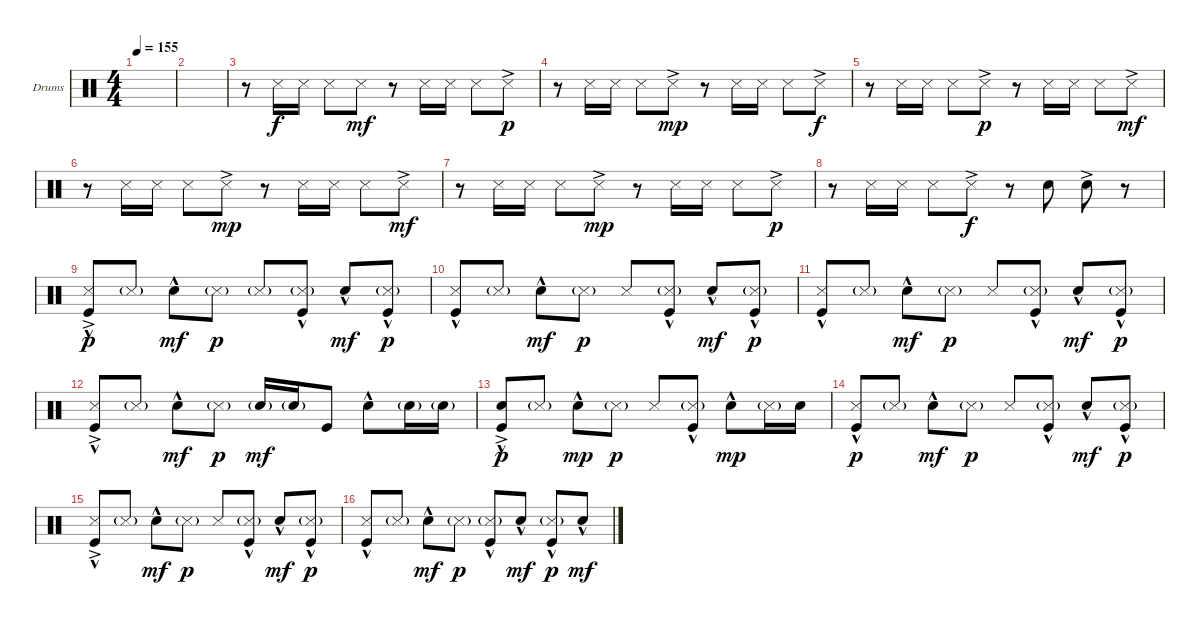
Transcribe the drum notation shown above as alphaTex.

\defaultSystemsLayout 4
\bracketExtendMode groupsimilarinstruments
\firstSystemTrackNameOrientation horizontal
\otherSystemsTrackNameOrientation horizontal
\track ("Drumkit" "Drums") {instrument percussion}
\staff {score}
\articulation defaults
\ts (4 4)
\tempo 155
\clef neutral
\ks c
|
|
r.8 "Snare (side stick) 3".16 "Snare (side stick) 3".16 "Snare (side stick) 3".8 "Snare (side stick) 3".8{dy mf} r.8 "Snare (side stick) 3".16 "Snare (side stick) 3".16 "Snare (side stick) 3".8 "Snare (side stick) 3"{ac}.8{dy p} |
r.8 "Snare (side stick) 3".16 "Snare (side stick) 3".16 "Snare (side stick) 3".8 "Snare (side stick) 3"{ac}.8{dy mp} r.8 "Snare (side stick) 3".16 "Snare (side stick) 3".16 "Snare (side stick) 3".8 "Snare (side stick) 3"{ac}.8{dy f} |
r.8 "Snare (side stick) 3".16 "Snare (side stick) 3".16 "Snare (side stick) 3".8 "Snare (side stick) 3"{ac}.8{dy p} r.8 "Snare (side stick) 3".16 "Snare (side stick) 3".16 "Snare (side stick) 3".8 "Snare (side stick) 3"{ac}.8{dy mf} |
r.8 "Snare (side stick) 3".16 "Snare (side stick) 3".16 "Snare (side stick) 3".8 "Snare (side stick) 3"{ac}.8{dy mp} r.8 "Snare (side stick) 3".16 "Snare (side stick) 3".16 "Snare (side stick) 3".8 "Snare (side stick) 3"{ac}.8{dy mf} |
r.8 "Snare (side stick) 3".16 "Snare (side stick) 3".16 "Snare (side stick) 3".8 "Snare (side stick) 3"{ac}.8{dy mp} r.8 "Snare (side stick) 3".16 "Snare (side stick) 3".16 "Snare (side stick) 3".8 "Snare (side stick) 3"{ac}.8{dy p} |
r.8 "Snare (side stick) 3".16 "Snare (side stick) 3".16 "Snare (side stick) 3".8 "Snare (side stick) 3"{ac}.8{dy f} r.8 "Snare (hit) 2".8 "Snare (hit) 2"{ac}.8 r.8 |
("Snare (side stick) 3"{ac} "Kick (hit)"{hac}).8{dy p} "Snare (side stick) 3"{g}.8 "Snare (hit) 2"{hac}.8{dy mf} "Snare (side stick) 3"{g}.8{dy p} "Snare (side stick) 3"{g}.8 ("Snare (side stick) 3"{g} "Kick (hit)"{hac}).8 "Snare (hit) 2"{hac}.8{dy mf} ("Snare (side stick) 3"{g} "Kick (hit)"{hac}).8{dy p} |
("Snare (side stick) 3" "Kick (hit)"{hac}).8 "Snare (side stick) 3"{g}.8 "Snare (hit) 2"{hac}.8{dy mf} "Snare (side stick) 3"{g}.8{dy p} "Snare (side stick) 3".8 ("Snare (side stick) 3"{g} "Kick (hit)"{hac}).8 "Snare (hit) 2"{hac}.8{dy mf} ("Snare (side stick) 3"{g} "Kick (hit)"{hac}).8{dy p} |
("Snare (side stick) 3" "Kick (hit)"{hac}).8 "Snare (side stick) 3"{g}.8 "Snare (hit) 2"{hac}.8{dy mf} "Snare (side stick) 3"{g}.8{dy p} "Snare (side stick) 3".8 ("Snare (side stick) 3"{g} "Kick (hit)"{hac}).8 "Snare (hit) 2"{hac}.8{dy mf} ("Snare (side stick) 3"{g} "Kick (hit)"{hac}).8{dy p} |
("Snare (side stick) 3"{ac} "Kick (hit)"{hac}).8 "Snare (side stick) 3"{g}.8 "Snare (hit) 2"{hac}.8{dy mf} "Snare (side stick) 3"{g}.8{dy p} "Snare (hit) 2"{g}.16{dy mf} "Snare (hit) 2"{g}.16 "Kick (hit)".8 "Snare (hit) 2"{hac}.8 "Snare (hit) 2"{g}.16 "Snare (hit) 2"{g}.16 |
("Snare (hit) 2"{ac} "Kick (hit)"{hac}).8{dy p} "Snare (side stick) 3"{g}.8 "Snare (hit) 2"{hac}.8{dy mp} "Snare (side stick) 3"{g}.8{dy p} "Snare (side stick) 3".8 ("Snare (side stick) 3"{g} "Kick (hit)"{hac}).8 "Snare (hit) 2"{hac}.8{dy mp} "Snare (side stick) 3"{g}.16 "Snare (hit) 2".16 |
("Snare (side stick) 3" "Kick (hit)"{hac}).8{dy p} "Snare (side stick) 3"{g}.8 "Snare (hit) 2"{hac}.8{dy mf} "Snare (side stick) 3"{g}.8{dy p} "Snare (side stick) 3".8 ("Snare (side stick) 3"{g} "Kick (hit)"{hac}).8 "Snare (hit) 2"{hac}.8{dy mf} ("Snare (side stick) 3"{g} "Kick (hit)"{hac}).8{dy p} |
("Snare (side stick) 3"{ac} "Kick (hit)"{hac}).8 "Snare (side stick) 3"{g}.8 "Snare (hit) 2"{hac}.8{dy mf} "Snare (side stick) 3"{g}.8{dy p} "Snare (side stick) 3".8 ("Snare (side stick) 3"{g} "Kick (hit)"{hac}).8 "Snare (hit) 2"{hac}.8{dy mf} ("Snare (side stick) 3"{g} "Kick (hit)"{hac}).8{dy p} |
("Snare (side stick) 3" "Kick (hit)"{hac}).8 "Snare (side stick) 3"{g}.8 "Snare (hit) 2"{hac}.8{dy mf} "Snare (side stick) 3"{g}.8{dy p} ("Snare (side stick) 3"{g} "Kick (hit)"{hac}).8 "Snare (hit) 2"{hac}.8{dy mf} ("Snare (side stick) 3"{g} "Kick (hit)"{hac}).8{dy p} "Snare (hit) 2"{hac}.8{dy mf}
